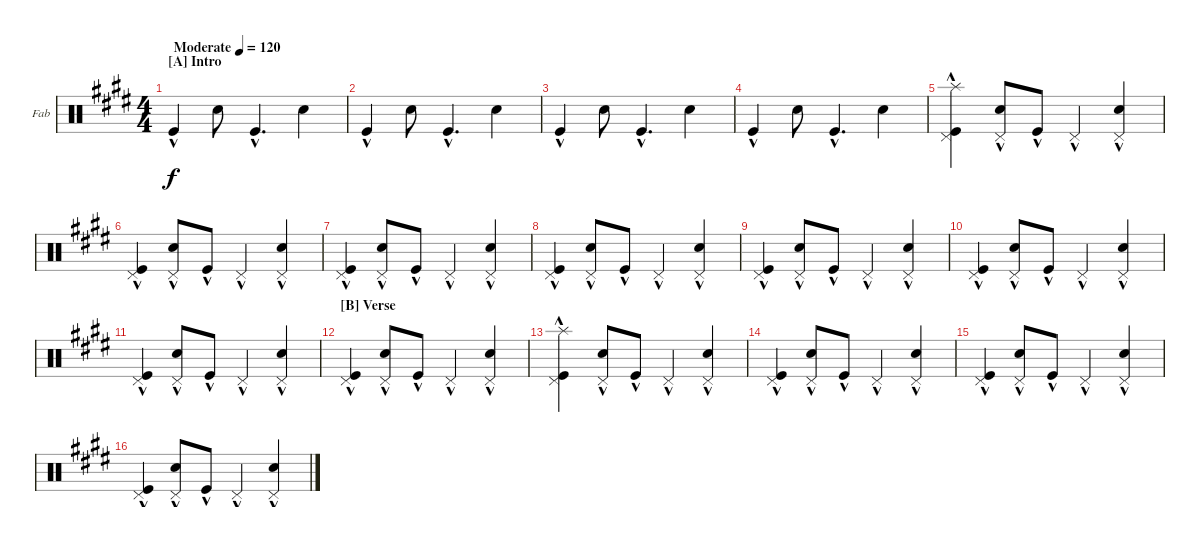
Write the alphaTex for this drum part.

\bracketExtendMode groupsimilarinstruments
\firstSystemTrackNameOrientation horizontal
\otherSystemsTrackNameOrientation horizontal
\track ("Drums" "Fab") {instrument percussion}
\staff {score}
\articulation defaults
\ts (4 4)
\beaming (8 2 2 2 2)
\section ("A" "Intro")
\tempo (120 "Moderate")
\clef neutral
\scale
0.537806
\ks e "Kick (hit)"{hac}.4{dy f} "Snare (hit) 2".8 "Kick (hit)"{hac}.4{d} "Snare (hit) 2".4
|
\scale
0.462172 "Kick (hit)"{hac}.4 "Snare (hit) 2".8 "Kick (hit)"{hac}.4{d} "Snare (hit) 2".4 |
\scale
0.530136 "Kick (hit)"{hac}.4 "Snare (hit) 2".8 "Kick (hit)"{hac}.4{d} "Snare (hit) 2".4 |
\scale
0.469556 "Kick (hit)"{hac}.4 "Snare (hit) 2".8 "Kick (hit)"{hac}.4{d} "Snare (hit) 2".4 |
\scale
0.530806 ("Kick (hit)"{hac} "Pedal Hi-Hat (hit)"{hac} "Splash (hit)").4 ("Snare (hit) 2" "Pedal Hi-Hat (hit)"{hac}).8 "Kick (hit)"{hac}.8 "Pedal Hi-Hat (hit)"{hac}.4 ("Snare (hit) 2" "Pedal Hi-Hat (hit)"{hac}).4 |
\scale
0.469095 ("Pedal Hi-Hat (hit)"{hac} "Kick (hit)"{hac}).4 ("Snare (hit) 2" "Pedal Hi-Hat (hit)"{hac}).8 "Kick (hit)"{hac}.8 "Pedal Hi-Hat (hit)"{hac}.4 ("Snare (hit) 2" "Pedal Hi-Hat (hit)"{hac}).4 |
\scale
0.53357 ("Pedal Hi-Hat (hit)"{hac} "Kick (hit)"{hac}).4 ("Snare (hit) 2" "Pedal Hi-Hat (hit)"{hac}).8 "Kick (hit)"{hac}.8 "Pedal Hi-Hat (hit)"{hac}.4 ("Snare (hit) 2" "Pedal Hi-Hat (hit)"{hac}).4 |
\scale
0.466336 ("Pedal Hi-Hat (hit)"{hac} "Kick (hit)"{hac}).4 ("Snare (hit) 2" "Pedal Hi-Hat (hit)"{hac}).8 "Kick (hit)"{hac}.8 "Pedal Hi-Hat (hit)"{hac}.4 ("Snare (hit) 2" "Pedal Hi-Hat (hit)"{hac}).4 |
\scale
0.532188 ("Pedal Hi-Hat (hit)"{hac} "Kick (hit)"{hac}).4 ("Snare (hit) 2" "Pedal Hi-Hat (hit)"{hac}).8 "Kick (hit)"{hac}.8 "Pedal Hi-Hat (hit)"{hac}.4 ("Snare (hit) 2" "Pedal Hi-Hat (hit)"{hac}).4 |
\scale
0.467715 ("Pedal Hi-Hat (hit)"{hac} "Kick (hit)"{hac}).4 ("Snare (hit) 2" "Pedal Hi-Hat (hit)"{hac}).8 "Kick (hit)"{hac}.8 "Pedal Hi-Hat (hit)"{hac}.4 ("Snare (hit) 2" "Pedal Hi-Hat (hit)"{hac}).4 |
\scale
0.532188 ("Pedal Hi-Hat (hit)"{hac} "Kick (hit)"{hac}).4 ("Snare (hit) 2" "Pedal Hi-Hat (hit)"{hac}).8 "Kick (hit)"{hac}.8 "Pedal Hi-Hat (hit)"{hac}.4 ("Snare (hit) 2" "Pedal Hi-Hat (hit)"{hac}).4 |
\section ("B" "Verse")
\scale
0.467715 ("Pedal Hi-Hat (hit)"{hac} "Kick (hit)"{hac}).4 ("Snare (hit) 2" "Pedal Hi-Hat (hit)"{hac}).8 "Kick (hit)"{hac}.8 "Pedal Hi-Hat (hit)"{hac}.4 ("Snare (hit) 2" "Pedal Hi-Hat (hit)"{hac}).4 |
\scale
0.532188 ("Pedal Hi-Hat (hit)"{hac} "Kick (hit)"{hac} "Splash (hit)").4 ("Snare (hit) 2" "Pedal Hi-Hat (hit)"{hac}).8 "Kick (hit)"{hac}.8 "Pedal Hi-Hat (hit)"{hac}.4 ("Snare (hit) 2" "Pedal Hi-Hat (hit)"{hac}).4 |
\scale
0.467715 ("Pedal Hi-Hat (hit)"{hac} "Kick (hit)"{hac}).4 ("Snare (hit) 2" "Pedal Hi-Hat (hit)"{hac}).8 "Kick (hit)"{hac}.8 "Pedal Hi-Hat (hit)"{hac}.4 ("Snare (hit) 2" "Pedal Hi-Hat (hit)"{hac}).4 |
\scale
0.53357 ("Pedal Hi-Hat (hit)"{hac} "Kick (hit)"{hac}).4 ("Snare (hit) 2" "Pedal Hi-Hat (hit)"{hac}).8 "Kick (hit)"{hac}.8 "Pedal Hi-Hat (hit)"{hac}.4 ("Snare (hit) 2" "Pedal Hi-Hat (hit)"{hac}).4 |
\scale
0.466336 ("Pedal Hi-Hat (hit)"{hac} "Kick (hit)"{hac}).4 ("Snare (hit) 2" "Pedal Hi-Hat (hit)"{hac}).8 "Kick (hit)"{hac}.8 "Pedal Hi-Hat (hit)"{hac}.4 ("Snare (hit) 2" "Pedal Hi-Hat (hit)"{hac}).4
